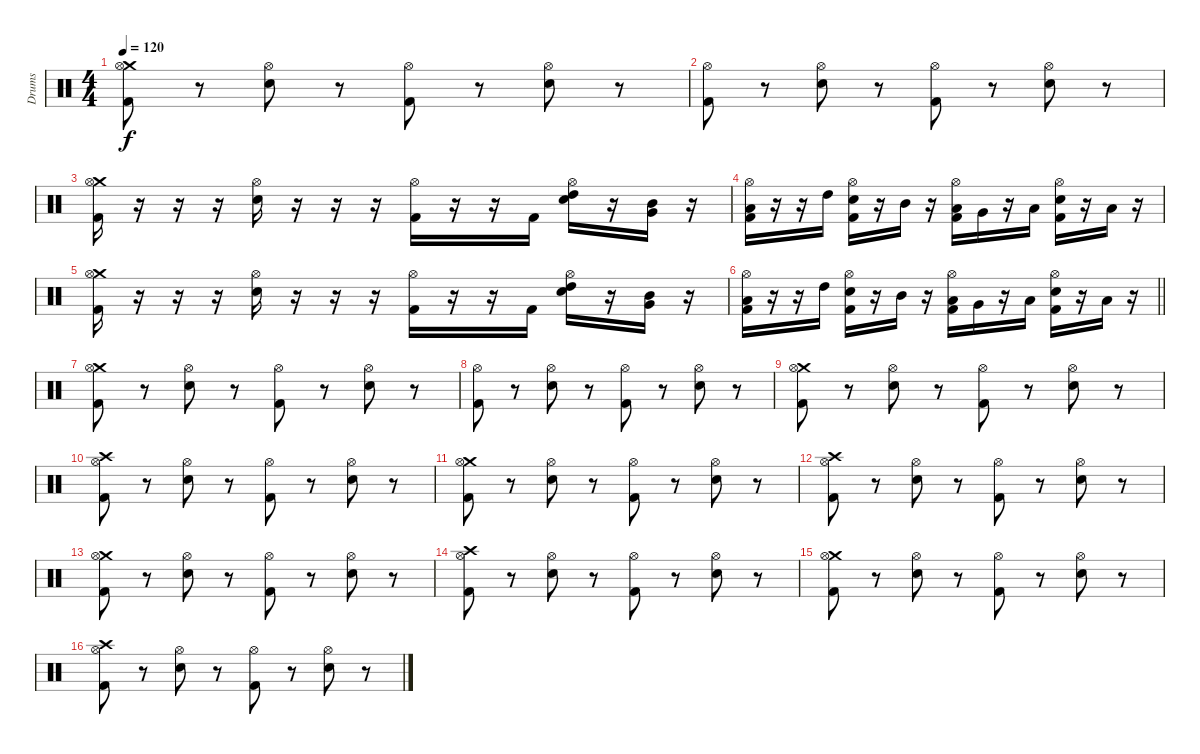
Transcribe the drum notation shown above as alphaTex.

\track ("Drums" "Drums") {instrument percussion}
\staff {score}
\articulation defaults
\ts (4 4)
\tempo 120
\clef neutral
\ks c
("Crash medium (hit)" "Hi-Hat (open)" "Kick (hit) 2").8{dy f} r.8 ("Hi-Hat (open)" "Electric Snare (hit)").8 r.8 ("Hi-Hat (open)" "Kick (hit) 2").8 r.8 ("Hi-Hat (open)" "Electric Snare (hit)").8 r.8 |
("Hi-Hat (open)" "Kick (hit) 2").8 r.8 ("Hi-Hat (open)" "Electric Snare (hit)").8 r.8 ("Hi-Hat (open)" "Kick (hit) 2").8 r.8 ("Hi-Hat (open)" "Electric Snare (hit)").8 r.8 |
("Crash medium (hit)" "Hi-Hat (open)" "Kick (hit) 2").16 r.16 r.16 r.16 ("Hi-Hat (open)" "Electric Snare (hit)").16 r.16 r.16 r.16 ("Hi-Hat (open)" "Kick (hit) 2").16 r.16 r.16 "Kick (hit) 2".16 ("Hi-Hat (open)" "Electric Snare (hit)" "High Tom (hit)").16 r.16 ("Very Low Tom (hit)" "Mid Tom (hit)").16 r.16 |
("Hi-Hat (open)" "Low Tom (hit)" "Kick (hit) 2").16 r.16 r.16 "High Tom (hit)".16 ("Hi-Hat (open)" "Electric Snare (hit)" "Kick (hit) 2").16 r.16 "Mid Tom (hit)".16 r.16 ("Hi-Hat (open)" "Low Tom (hit)" "Kick (hit) 2").16 "Very Low Tom (hit)".16 r.16 "Low Tom (hit)".16 ("Hi-Hat (open)" "Electric Snare (hit)" "Kick (hit) 2").16 r.16 "Low Floor Tom (hit)".16 r.16 |
("Crash medium (hit)" "Hi-Hat (open)" "Kick (hit) 2").16 r.16 r.16 r.16 ("Hi-Hat (open)" "Electric Snare (hit)").16 r.16 r.16 r.16 ("Hi-Hat (open)" "Kick (hit) 2").16 r.16 r.16 "Kick (hit) 2".16 ("Hi-Hat (open)" "Electric Snare (hit)" "High Tom (hit)").16 r.16 ("Very Low Tom (hit)" "Mid Tom (hit)").16 r.16 |
\barLineRight lightlight
("Hi-Hat (open)" "Low Tom (hit)" "Kick (hit) 2").16 r.16 r.16 "High Tom (hit)".16 ("Hi-Hat (open)" "Electric Snare (hit)" "Kick (hit) 2").16 r.16 "Mid Tom (hit)".16 r.16 ("Hi-Hat (open)" "Low Tom (hit)" "Kick (hit) 2").16 "Very Low Tom (hit)".16 r.16 "Low Tom (hit)".16 ("Hi-Hat (open)" "Electric Snare (hit)" "Kick (hit) 2").16 r.16 "Low Floor Tom (hit)".16 r.16 |
\section ("" "")
("Crash medium (hit)" "Hi-Hat (open)" "Kick (hit) 2").8 r.8 ("Hi-Hat (open)" "Electric Snare (hit)").8 r.8 ("Hi-Hat (open)" "Kick (hit) 2").8 r.8 ("Hi-Hat (open)" "Electric Snare (hit)").8 r.8 |
("Hi-Hat (open)" "Kick (hit) 2").8 r.8 ("Hi-Hat (open)" "Electric Snare (hit)").8 r.8 ("Hi-Hat (open)" "Kick (hit) 2").8 r.8 ("Hi-Hat (open)" "Electric Snare (hit)").8 r.8 |
("Crash medium (hit)" "Hi-Hat (open)" "Kick (hit) 2").8 r.8 ("Hi-Hat (open)" "Electric Snare (hit)").8 r.8 ("Hi-Hat (open)" "Kick (hit) 2").8 r.8 ("Hi-Hat (open)" "Electric Snare (hit)").8 r.8 |
("Crash high (hit)" "Hi-Hat (open)" "Kick (hit) 2").8 r.8 ("Hi-Hat (open)" "Electric Snare (hit)").8 r.8 ("Hi-Hat (open)" "Kick (hit) 2").8 r.8 ("Hi-Hat (open)" "Electric Snare (hit)").8 r.8 |
("Crash medium (hit)" "Hi-Hat (open)" "Kick (hit) 2").8 r.8 ("Hi-Hat (open)" "Electric Snare (hit)").8 r.8 ("Hi-Hat (open)" "Kick (hit) 2").8 r.8 ("Hi-Hat (open)" "Electric Snare (hit)").8 r.8 |
("Crash high (hit)" "Hi-Hat (open)" "Kick (hit) 2").8 r.8 ("Hi-Hat (open)" "Electric Snare (hit)").8 r.8 ("Hi-Hat (open)" "Kick (hit) 2").8 r.8 ("Hi-Hat (open)" "Electric Snare (hit)").8 r.8 |
("Crash medium (hit)" "Hi-Hat (open)" "Kick (hit) 2").8 r.8 ("Hi-Hat (open)" "Electric Snare (hit)").8 r.8 ("Hi-Hat (open)" "Kick (hit) 2").8 r.8 ("Hi-Hat (open)" "Electric Snare (hit)").8 r.8 |
("Crash high (hit)" "Hi-Hat (open)" "Kick (hit) 2").8 r.8 ("Hi-Hat (open)" "Electric Snare (hit)").8 r.8 ("Hi-Hat (open)" "Kick (hit) 2").8 r.8 ("Hi-Hat (open)" "Electric Snare (hit)").8 r.8 |
("Crash medium (hit)" "Hi-Hat (open)" "Kick (hit) 2").8 r.8 ("Hi-Hat (open)" "Electric Snare (hit)").8 r.8 ("Hi-Hat (open)" "Kick (hit) 2").8 r.8 ("Hi-Hat (open)" "Electric Snare (hit)").8 r.8 |
("Crash high (hit)" "Hi-Hat (open)" "Kick (hit) 2").8 r.8 ("Hi-Hat (open)" "Electric Snare (hit)").8 r.8 ("Hi-Hat (open)" "Kick (hit) 2").8 r.8 ("Hi-Hat (open)" "Electric Snare (hit)").8 r.8
